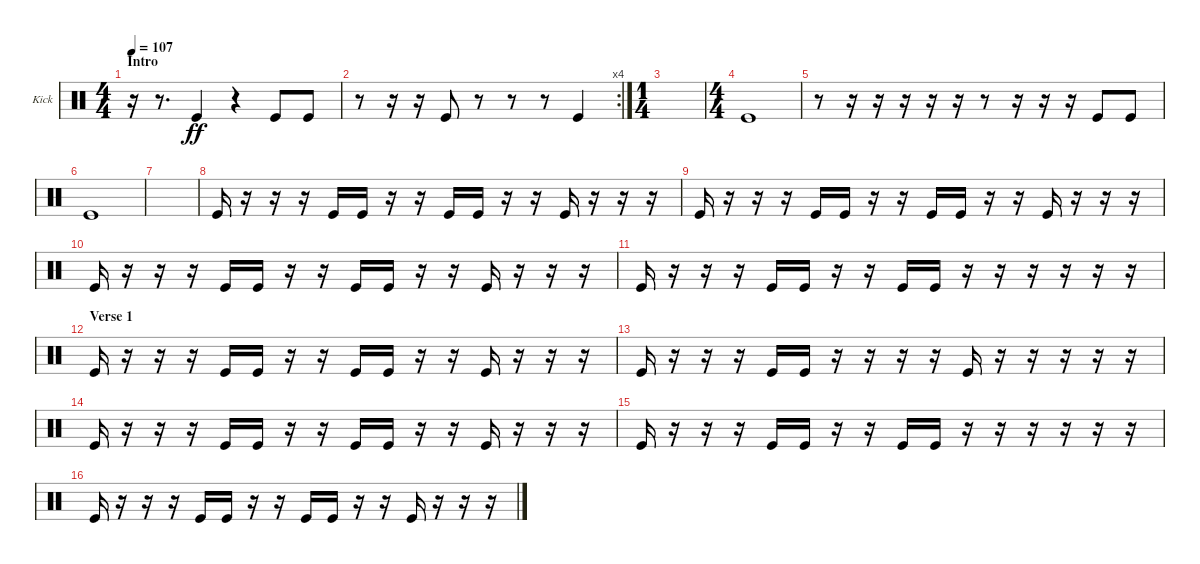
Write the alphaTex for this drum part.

\bracketExtendMode groupsimilarinstruments
\firstSystemTrackNameOrientation horizontal
\otherSystemsTrackNameOrientation horizontal
\track ("Kick" "Kick") {instrument percussion}
\staff {score}
\articulation defaults
\ts (4 4)
\section ("" "Intro")
\tempo 107
\clef neutral
\ks c
r.16{dy ff} r.8{d} "Kick (hit)".4 r.4 "Kick (hit)".8 "Kick (hit)".8 |
\rc 4
r.8 r.16 r.16 "Kick (hit)".8 r.8 r.8 r.8 "Kick (hit)".4 |
\ts (1 4)
|
\ts (4 4)
"Kick (hit)".1 |
r.8 r.16 r.16 r.16 r.16 r.16 r.8 r.16 r.16 r.16 "Kick (hit)".8 "Kick (hit)".8 |
"Kick (hit)".1 |
|
"Kick (hit)".16 r.16 r.16 r.16 "Kick (hit)".16 "Kick (hit)".16 r.16 r.16 "Kick (hit)".16 "Kick (hit)".16 r.16 r.16 "Kick (hit)".16 r.16 r.16 r.16 |
"Kick (hit)".16 r.16 r.16 r.16 "Kick (hit)".16 "Kick (hit)".16 r.16 r.16 "Kick (hit)".16 "Kick (hit)".16 r.16 r.16 "Kick (hit)".16 r.16 r.16 r.16 |
"Kick (hit)".16 r.16 r.16 r.16 "Kick (hit)".16 "Kick (hit)".16 r.16 r.16 "Kick (hit)".16 "Kick (hit)".16 r.16 r.16 "Kick (hit)".16 r.16 r.16 r.16 |
"Kick (hit)".16 r.16 r.16 r.16 "Kick (hit)".16 "Kick (hit)".16 r.16 r.16 "Kick (hit)".16 "Kick (hit)".16 r.16 r.16 r.16 r.16 r.16 r.16 |
\section ("" "Verse 1")
"Kick (hit)".16 r.16 r.16 r.16 "Kick (hit)".16 "Kick (hit)".16 r.16 r.16 "Kick (hit)".16 "Kick (hit)".16 r.16 r.16 "Kick (hit)".16 r.16 r.16 r.16 |
"Kick (hit)".16 r.16 r.16 r.16 "Kick (hit)".16 "Kick (hit)".16 r.16 r.16 r.16 r.16 "Kick (hit)".16 r.16 r.16 r.16 r.16 r.16 |
"Kick (hit)".16 r.16 r.16 r.16 "Kick (hit)".16 "Kick (hit)".16 r.16 r.16 "Kick (hit)".16 "Kick (hit)".16 r.16 r.16 "Kick (hit)".16 r.16 r.16 r.16 |
"Kick (hit)".16 r.16 r.16 r.16 "Kick (hit)".16 "Kick (hit)".16 r.16 r.16 "Kick (hit)".16 "Kick (hit)".16 r.16 r.16 r.16 r.16 r.16 r.16 |
"Kick (hit)".16 r.16 r.16 r.16 "Kick (hit)".16 "Kick (hit)".16 r.16 r.16 "Kick (hit)".16 "Kick (hit)".16 r.16 r.16 "Kick (hit)".16 r.16 r.16 r.16
